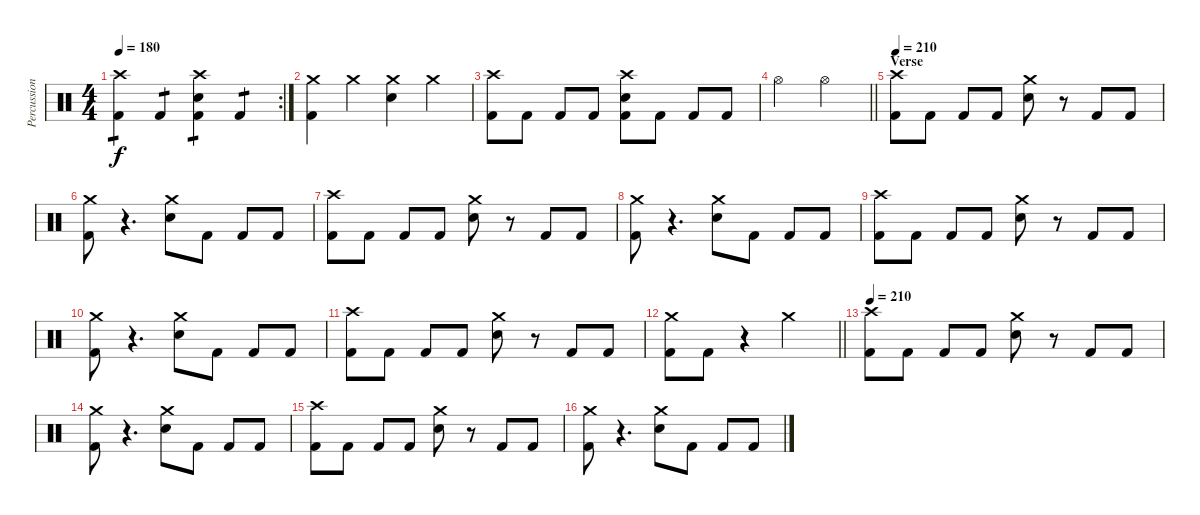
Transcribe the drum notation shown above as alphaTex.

\track ("Percussion" "Percussion") {instrument percussion}
\staff {score}
\articulation defaults
\rc 2
\ts (4 4)
\tempo 180
\clef neutral
\ks c
("Crash high (hit)" "Kick (hit) 2").4{tp 1 dy f} "Kick (hit) 2".4{tp 1} ("Crash high (hit)" "Electric Snare (hit)" "Kick (hit) 2").4{tp 1} "Kick (hit) 2".4{tp 1} |
("Crash medium (hit)" "Kick (hit) 2").4 "Crash medium (hit)".4 ("Crash medium (hit)" "Electric Snare (hit)").4 "Crash medium (hit)".4 |
("Crash high (hit)" "Kick (hit) 2").8 "Kick (hit) 2".8 "Kick (hit) 2".8 "Kick (hit) 2".8 ("Crash high (hit)" "Electric Snare (hit)" "Kick (hit) 2").8 "Kick (hit) 2".8 "Kick (hit) 2".8 "Kick (hit) 2".8 |
\barLineRight lightlight "Hi-Hat (open)".2 "Hi-Hat (open)".2
|
\section ("" "Verse")
\tempo 210
("Crash high (hit)" "Kick (hit) 2").8 "Kick (hit) 2".8 "Kick (hit) 2".8 "Kick (hit) 2".8 ("Crash medium (hit)" "Electric Snare (hit)").8 r.8 "Kick (hit) 2".8 "Kick (hit) 2".8 |
("Crash medium (hit)" "Kick (hit) 2").8 r.4{d} ("Crash medium (hit)" "Electric Snare (hit)").8 "Kick (hit) 2".8 "Kick (hit) 2".8 "Kick (hit) 2".8 |
("Crash high (hit)" "Kick (hit) 2").8 "Kick (hit) 2".8 "Kick (hit) 2".8 "Kick (hit) 2".8 ("Crash medium (hit)" "Electric Snare (hit)").8 r.8 "Kick (hit) 2".8 "Kick (hit) 2".8 |
("Crash medium (hit)" "Kick (hit) 2").8 r.4{d} ("Crash medium (hit)" "Electric Snare (hit)").8 "Kick (hit) 2".8 "Kick (hit) 2".8 "Kick (hit) 2".8 |
("Crash high (hit)" "Kick (hit) 2").8 "Kick (hit) 2".8 "Kick (hit) 2".8 "Kick (hit) 2".8 ("Crash medium (hit)" "Electric Snare (hit)").8 r.8 "Kick (hit) 2".8 "Kick (hit) 2".8 |
("Crash medium (hit)" "Kick (hit) 2").8 r.4{d} ("Crash medium (hit)" "Electric Snare (hit)").8 "Kick (hit) 2".8 "Kick (hit) 2".8 "Kick (hit) 2".8 |
("Crash high (hit)" "Kick (hit) 2").8 "Kick (hit) 2".8 "Kick (hit) 2".8 "Kick (hit) 2".8 ("Crash medium (hit)" "Electric Snare (hit)").8 r.8 "Kick (hit) 2".8 "Kick (hit) 2".8 |
\barLineRight lightlight
("Crash medium (hit)" "Kick (hit) 2").8 "Kick (hit) 2".8 r.4 "Crash medium (hit)".2 |
\tempo 210
("Crash high (hit)" "Kick (hit) 2").8 "Kick (hit) 2".8 "Kick (hit) 2".8 "Kick (hit) 2".8 ("Crash medium (hit)" "Electric Snare (hit)").8 r.8 "Kick (hit) 2".8 "Kick (hit) 2".8 |
("Crash medium (hit)" "Kick (hit) 2").8 r.4{d} ("Crash medium (hit)" "Electric Snare (hit)").8 "Kick (hit) 2".8 "Kick (hit) 2".8 "Kick (hit) 2".8 |
("Crash high (hit)" "Kick (hit) 2").8 "Kick (hit) 2".8 "Kick (hit) 2".8 "Kick (hit) 2".8 ("Crash medium (hit)" "Electric Snare (hit)").8 r.8 "Kick (hit) 2".8 "Kick (hit) 2".8 |
("Crash medium (hit)" "Kick (hit) 2").8 r.4{d} ("Crash medium (hit)" "Electric Snare (hit)").8 "Kick (hit) 2".8 "Kick (hit) 2".8 "Kick (hit) 2".8
